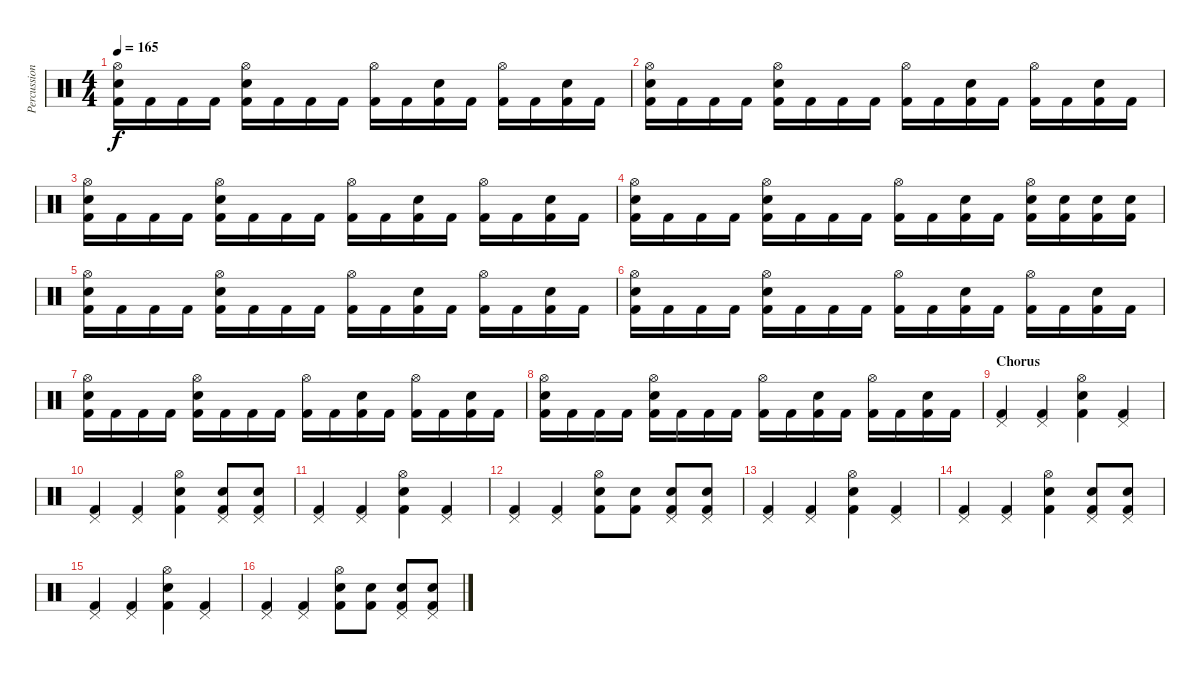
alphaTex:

\track ("Percussion" "Percussion") {instrument percussion}
\staff {score}
\articulation defaults
\ts (4 4)
\tempo 165
\clef neutral
\ks c
("Hi-Hat (open)" "Snare (hit) 2" "Kick (hit) 2").16{dy f} "Kick (hit) 2".16 "Kick (hit) 2".16 "Kick (hit) 2".16 ("Hi-Hat (open)" "Snare (hit) 2" "Kick (hit) 2").16 "Kick (hit) 2".16 "Kick (hit) 2".16 "Kick (hit) 2".16 ("Hi-Hat (open)" "Kick (hit) 2").16 "Kick (hit) 2".16 ("Snare (hit) 2" "Kick (hit) 2").16 "Kick (hit) 2".16 ("Hi-Hat (open)" "Kick (hit) 2").16 "Kick (hit) 2".16 ("Snare (hit) 2" "Kick (hit) 2").16 "Kick (hit) 2".16 |
("Hi-Hat (open)" "Snare (hit) 2" "Kick (hit) 2").16 "Kick (hit) 2".16 "Kick (hit) 2".16 "Kick (hit) 2".16 ("Hi-Hat (open)" "Snare (hit) 2" "Kick (hit) 2").16 "Kick (hit) 2".16 "Kick (hit) 2".16 "Kick (hit) 2".16 ("Hi-Hat (open)" "Kick (hit) 2").16 "Kick (hit) 2".16 ("Snare (hit) 2" "Kick (hit) 2").16 "Kick (hit) 2".16 ("Hi-Hat (open)" "Kick (hit) 2").16 "Kick (hit) 2".16 ("Snare (hit) 2" "Kick (hit) 2").16 "Kick (hit) 2".16 |
("Hi-Hat (open)" "Snare (hit) 2" "Kick (hit) 2").16 "Kick (hit) 2".16 "Kick (hit) 2".16 "Kick (hit) 2".16 ("Hi-Hat (open)" "Snare (hit) 2" "Kick (hit) 2").16 "Kick (hit) 2".16 "Kick (hit) 2".16 "Kick (hit) 2".16 ("Hi-Hat (open)" "Kick (hit) 2").16 "Kick (hit) 2".16 ("Snare (hit) 2" "Kick (hit) 2").16 "Kick (hit) 2".16 ("Hi-Hat (open)" "Kick (hit) 2").16 "Kick (hit) 2".16 ("Snare (hit) 2" "Kick (hit) 2").16 "Kick (hit) 2".16 |
("Hi-Hat (open)" "Snare (hit) 2" "Kick (hit) 2").16 "Kick (hit) 2".16 "Kick (hit) 2".16 "Kick (hit) 2".16 ("Hi-Hat (open)" "Snare (hit) 2" "Kick (hit) 2").16 "Kick (hit) 2".16 "Kick (hit) 2".16 "Kick (hit) 2".16 ("Hi-Hat (open)" "Kick (hit) 2").16 "Kick (hit) 2".16 ("Snare (hit) 2" "Kick (hit) 2").16 "Kick (hit) 2".16 ("Hi-Hat (open)" "Snare (hit) 2" "Kick (hit) 2").16 ("Snare (hit) 2" "Kick (hit) 2").16 ("Snare (hit) 2" "Kick (hit) 2").16 ("Snare (hit) 2" "Kick (hit) 2").16 |
("Hi-Hat (open)" "Snare (hit) 2" "Kick (hit) 2").16 "Kick (hit) 2".16 "Kick (hit) 2".16 "Kick (hit) 2".16 ("Hi-Hat (open)" "Snare (hit) 2" "Kick (hit) 2").16 "Kick (hit) 2".16 "Kick (hit) 2".16 "Kick (hit) 2".16 ("Hi-Hat (open)" "Kick (hit) 2").16 "Kick (hit) 2".16 ("Snare (hit) 2" "Kick (hit) 2").16 "Kick (hit) 2".16 ("Hi-Hat (open)" "Kick (hit) 2").16 "Kick (hit) 2".16 ("Snare (hit) 2" "Kick (hit) 2").16 "Kick (hit) 2".16 |
("Hi-Hat (open)" "Snare (hit) 2" "Kick (hit) 2").16 "Kick (hit) 2".16 "Kick (hit) 2".16 "Kick (hit) 2".16 ("Hi-Hat (open)" "Snare (hit) 2" "Kick (hit) 2").16 "Kick (hit) 2".16 "Kick (hit) 2".16 "Kick (hit) 2".16 ("Hi-Hat (open)" "Kick (hit) 2").16 "Kick (hit) 2".16 ("Snare (hit) 2" "Kick (hit) 2").16 "Kick (hit) 2".16 ("Hi-Hat (open)" "Kick (hit) 2").16 "Kick (hit) 2".16 ("Snare (hit) 2" "Kick (hit) 2").16 "Kick (hit) 2".16 |
("Hi-Hat (open)" "Snare (hit) 2" "Kick (hit) 2").16 "Kick (hit) 2".16 "Kick (hit) 2".16 "Kick (hit) 2".16 ("Hi-Hat (open)" "Snare (hit) 2" "Kick (hit) 2").16 "Kick (hit) 2".16 "Kick (hit) 2".16 "Kick (hit) 2".16 ("Hi-Hat (open)" "Kick (hit) 2").16 "Kick (hit) 2".16 ("Snare (hit) 2" "Kick (hit) 2").16 "Kick (hit) 2".16 ("Hi-Hat (open)" "Kick (hit) 2").16 "Kick (hit) 2".16 ("Snare (hit) 2" "Kick (hit) 2").16 "Kick (hit) 2".16 |
("Hi-Hat (open)" "Snare (hit) 2" "Kick (hit) 2").16 "Kick (hit) 2".16 "Kick (hit) 2".16 "Kick (hit) 2".16 ("Hi-Hat (open)" "Snare (hit) 2" "Kick (hit) 2").16 "Kick (hit) 2".16 "Kick (hit) 2".16 "Kick (hit) 2".16 ("Hi-Hat (open)" "Kick (hit) 2").16 "Kick (hit) 2".16 ("Snare (hit) 2" "Kick (hit) 2").16 "Kick (hit) 2".16 ("Hi-Hat (open)" "Kick (hit) 2").16 "Kick (hit) 2".16 ("Snare (hit) 2" "Kick (hit) 2").16 "Kick (hit) 2".16 |
\section ("" "Chorus")
("Pedal Hi-Hat (hit)" "Kick (hit) 2").4 ("Pedal Hi-Hat (hit)" "Kick (hit) 2").4 ("Hi-Hat (open)" "Snare (hit) 2" "Kick (hit) 2").4 ("Pedal Hi-Hat (hit)" "Kick (hit) 2").4 |
("Pedal Hi-Hat (hit)" "Kick (hit) 2").4 ("Pedal Hi-Hat (hit)" "Kick (hit) 2").4 ("Hi-Hat (open)" "Snare (hit) 2" "Kick (hit) 2").4 ("Pedal Hi-Hat (hit)" "Snare (hit) 2" "Kick (hit) 2").8 ("Pedal Hi-Hat (hit)" "Snare (hit) 2" "Kick (hit) 2").8 |
("Pedal Hi-Hat (hit)" "Kick (hit) 2").4 ("Pedal Hi-Hat (hit)" "Kick (hit) 2").4 ("Hi-Hat (open)" "Snare (hit) 2" "Kick (hit) 2").4 ("Pedal Hi-Hat (hit)" "Kick (hit) 2").4 |
("Pedal Hi-Hat (hit)" "Kick (hit) 2").4 ("Pedal Hi-Hat (hit)" "Kick (hit) 2").4 ("Hi-Hat (open)" "Snare (hit) 2" "Kick (hit) 2").8 ("Snare (hit) 2" "Kick (hit) 2").8 ("Pedal Hi-Hat (hit)" "Snare (hit) 2" "Kick (hit) 2").8 ("Pedal Hi-Hat (hit)" "Snare (hit) 2" "Kick (hit) 2").8 |
("Pedal Hi-Hat (hit)" "Kick (hit) 2").4 ("Pedal Hi-Hat (hit)" "Kick (hit) 2").4 ("Hi-Hat (open)" "Snare (hit) 2" "Kick (hit) 2").4 ("Pedal Hi-Hat (hit)" "Kick (hit) 2").4 |
("Pedal Hi-Hat (hit)" "Kick (hit) 2").4 ("Pedal Hi-Hat (hit)" "Kick (hit) 2").4 ("Hi-Hat (open)" "Snare (hit) 2" "Kick (hit) 2").4 ("Pedal Hi-Hat (hit)" "Snare (hit) 2" "Kick (hit) 2").8 ("Pedal Hi-Hat (hit)" "Snare (hit) 2" "Kick (hit) 2").8 |
("Pedal Hi-Hat (hit)" "Kick (hit) 2").4 ("Pedal Hi-Hat (hit)" "Kick (hit) 2").4 ("Hi-Hat (open)" "Snare (hit) 2" "Kick (hit) 2").4 ("Pedal Hi-Hat (hit)" "Kick (hit) 2").4 |
("Pedal Hi-Hat (hit)" "Kick (hit) 2").4 ("Pedal Hi-Hat (hit)" "Kick (hit) 2").4 ("Hi-Hat (open)" "Snare (hit) 2" "Kick (hit) 2").8 ("Snare (hit) 2" "Kick (hit) 2").8 ("Pedal Hi-Hat (hit)" "Snare (hit) 2" "Kick (hit) 2").8 ("Pedal Hi-Hat (hit)" "Snare (hit) 2" "Kick (hit) 2").8
